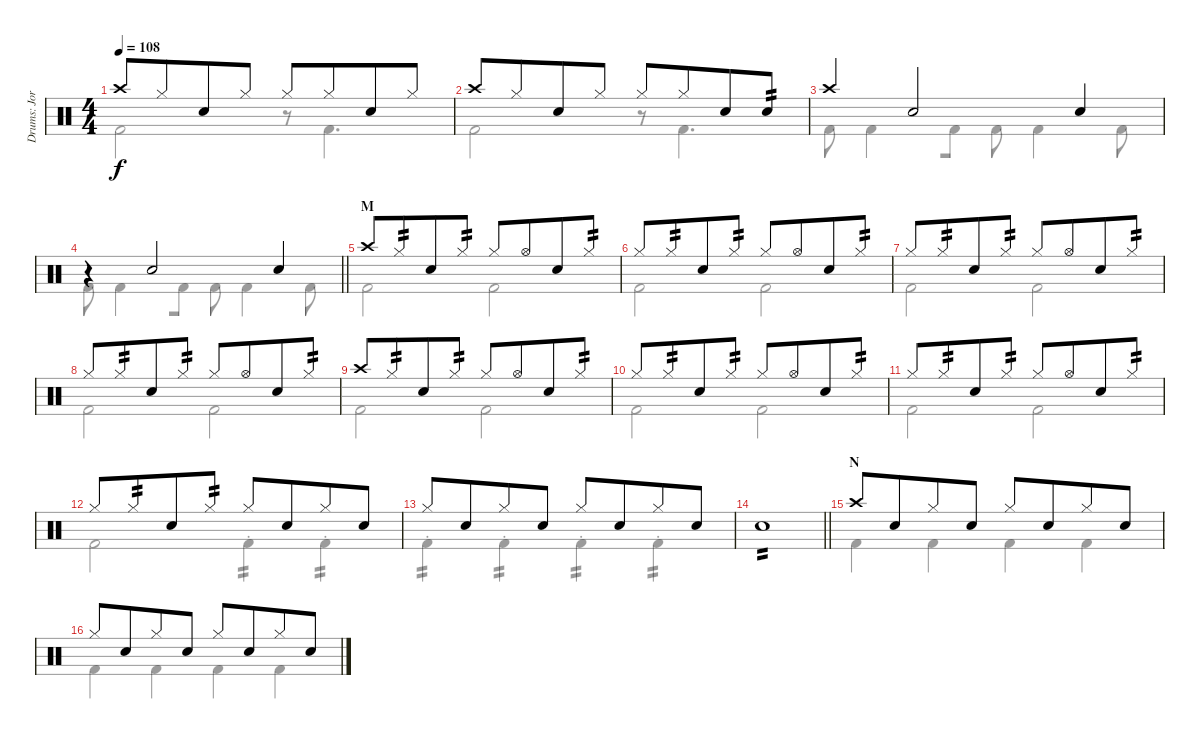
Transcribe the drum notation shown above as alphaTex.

\track ("Drums: Jorg" "Drums: Jor") {instrument percussion}
\staff {score}
\articulation defaults
\voice
\ts (4 4)
\tempo 108
\clef neutral
\ks c "Crash high (hit)".8{dy f} "Hi-Hat (closed)".8{beam merge} "Snare (hit) 2".8 "Hi-Hat (closed)".8 "Hi-Hat (closed)".8 "Hi-Hat (closed)".8{beam merge} "Snare (hit) 2".8 "Hi-Hat (closed)".8
|
"Crash high (hit)".8 "Hi-Hat (closed)".8{beam merge} "Snare (hit) 2".8 "Hi-Hat (closed)".8 "Hi-Hat (closed)".8 "Hi-Hat (closed)".8{beam merge} "Snare (hit) 2".8 "Electric Snare (hit)".8{tp 2} |
"Crash high (hit)".4{beam merge} "Snare (hit) 2".2 "Snare (hit) 2".4 |
\barLineRight lightlight
r.4{beam merge} "Snare (hit) 2".2{beam merge} "Snare (hit) 2".4 |
\section ("" "M")
"Crash high (hit)".8 "Hi-Hat (closed)".8{tp 2 beam merge} "Snare (hit) 2".8 "Hi-Hat (closed)".8{tp 2} "Hi-Hat (closed)".8 "Hi-Hat (open)".8{beam merge} "Snare (hit) 2".8 "Hi-Hat (closed)".8{tp 2} |
"Hi-Hat (closed)".8 "Hi-Hat (closed)".8{tp 2 beam merge} "Snare (hit) 2".8 "Hi-Hat (closed)".8{tp 2} "Hi-Hat (closed)".8 "Hi-Hat (open)".8{beam merge} "Snare (hit) 2".8 "Hi-Hat (closed)".8{tp 2} |
"Hi-Hat (closed)".8 "Hi-Hat (closed)".8{tp 2 beam merge} "Snare (hit) 2".8 "Hi-Hat (closed)".8{tp 2} "Hi-Hat (closed)".8 "Hi-Hat (open)".8{beam merge} "Snare (hit) 2".8 "Hi-Hat (closed)".8{tp 2} |
"Hi-Hat (closed)".8 "Hi-Hat (closed)".8{tp 2 beam merge} "Snare (hit) 2".8 "Hi-Hat (closed)".8{tp 2} "Hi-Hat (closed)".8 "Hi-Hat (open)".8{beam merge} "Snare (hit) 2".8 "Hi-Hat (closed)".8{tp 2} |
"Crash high (hit)".8 "Hi-Hat (closed)".8{tp 2 beam merge} "Snare (hit) 2".8 "Hi-Hat (closed)".8{tp 2} "Hi-Hat (closed)".8 "Hi-Hat (open)".8{beam merge} "Snare (hit) 2".8 "Hi-Hat (closed)".8{tp 2} |
"Hi-Hat (closed)".8 "Hi-Hat (closed)".8{tp 2 beam merge} "Snare (hit) 2".8 "Hi-Hat (closed)".8{tp 2} "Hi-Hat (closed)".8 "Hi-Hat (open)".8{beam merge} "Snare (hit) 2".8 "Hi-Hat (closed)".8{tp 2} |
"Hi-Hat (closed)".8 "Hi-Hat (closed)".8{tp 2 beam merge} "Snare (hit) 2".8 "Hi-Hat (closed)".8{tp 2} "Hi-Hat (closed)".8 "Hi-Hat (open)".8{beam merge} "Snare (hit) 2".8 "Hi-Hat (closed)".8{tp 2} |
"Hi-Hat (closed)".8 "Hi-Hat (closed)".8{tp 2 beam merge} "Snare (hit) 2".8 "Hi-Hat (closed)".8{tp 2} "Hi-Hat (closed)".8 "Snare (hit) 2".8{beam merge} "Hi-Hat (closed)".8 "Snare (hit) 2".8 |
"Hi-Hat (closed)".8 "Snare (hit) 2".8{beam merge} "Hi-Hat (closed)".8 "Snare (hit) 2".8 "Hi-Hat (closed)".8 "Snare (hit) 2".8{beam merge} "Hi-Hat (closed)".8 "Snare (hit) 2".8 |
\barLineRight lightlight "Snare (hit) 2".1{tp 2}
|
\section ("" "N")
"Crash high (hit)".8 "Snare (hit) 2".8{beam merge} "Hi-Hat (closed)".8 "Snare (hit) 2".8 "Hi-Hat (closed)".8 "Snare (hit) 2".8{beam merge} "Hi-Hat (closed)".8 "Snare (hit) 2".8 |
"Hi-Hat (closed)".8 "Snare (hit) 2".8{beam merge} "Hi-Hat (closed)".8 "Snare (hit) 2".8 "Hi-Hat (closed)".8 "Snare (hit) 2".8{beam merge} "Hi-Hat (closed)".8 "Snare (hit) 2".8
\voice
\clef neutral
\ottava regular
\simile none
\ks c "Kick (hit) 2".2{dy f}
r.8 "Kick (hit) 2".4{d} |
"Kick (hit) 2".2 r.8 "Kick (hit) 2".4{d} |
"Kick (hit) 2".8 "Kick (hit) 2".4{beam merge} "Kick (hit) 2".8 "Kick (hit) 2".8 "Kick (hit) 2".4 "Kick (hit) 2".8 |
\barLineRight lightlight "Kick (hit) 2".8 "Kick (hit) 2".4{beam merge} "Kick (hit) 2".8 "Kick (hit) 2".8 "Kick (hit) 2".4 "Kick (hit) 2".8
|
"Kick (hit) 2".2 "Kick (hit) 2".2 |
"Kick (hit) 2".2 "Kick (hit) 2".2 |
"Kick (hit) 2".2 "Kick (hit) 2".2 |
"Kick (hit) 2".2 "Kick (hit) 2".2 |
"Kick (hit) 2".2 "Kick (hit) 2".2 |
"Kick (hit) 2".2 "Kick (hit) 2".2 |
"Kick (hit) 2".2 "Kick (hit) 2".2 |
"Kick (hit) 2".2 "Kick (hit) 2"{st}.4{tp 2} "Kick (hit) 2"{st}.4{tp 2} |
"Kick (hit) 2"{st}.4{tp 2} "Kick (hit) 2"{st}.4{tp 2} "Kick (hit) 2"{st}.4{tp 2} "Kick (hit) 2"{st}.4{tp 2} |
\barLineRight lightlight
|
"Kick (hit) 2".4 "Kick (hit) 2".4 "Kick (hit) 2".4 "Kick (hit) 2".4 |
"Kick (hit) 2".4 "Kick (hit) 2".4 "Kick (hit) 2".4 "Kick (hit) 2".4
